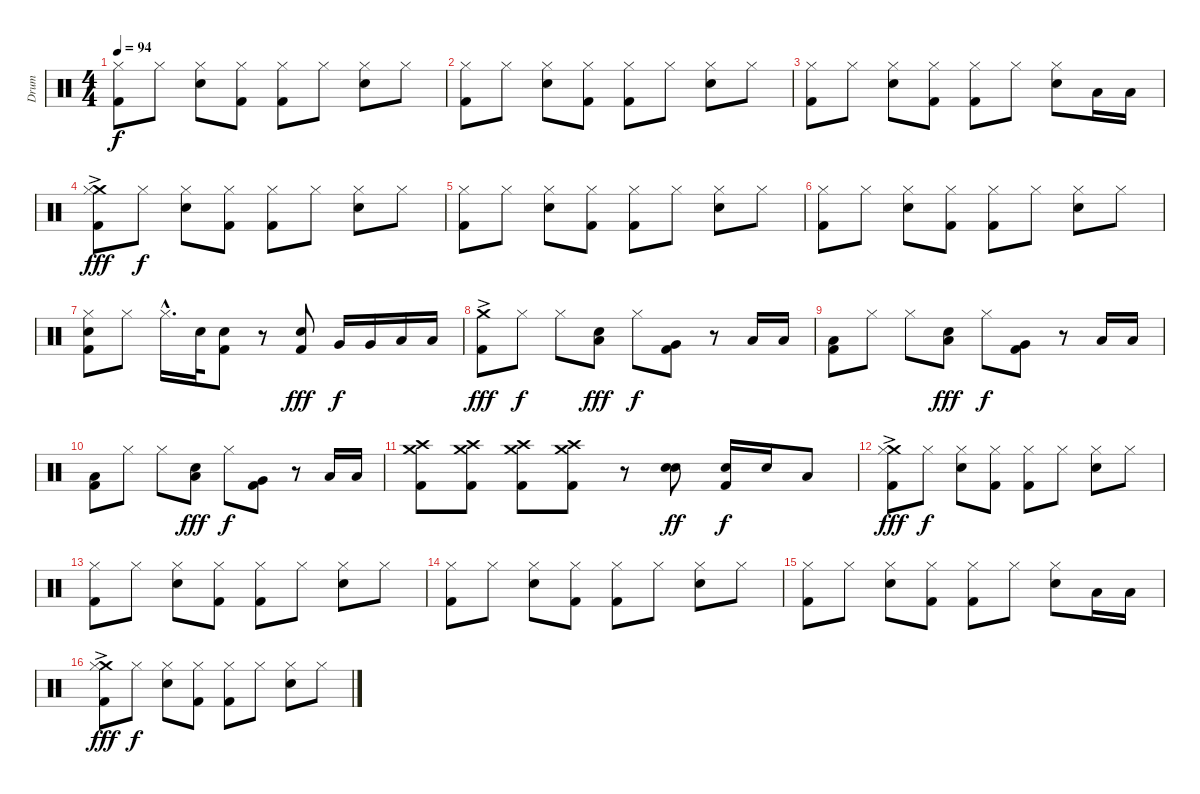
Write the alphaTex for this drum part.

\track ("Drum" "Drum") {instrument percussion}
\staff {score}
\articulation defaults
\ts (4 4)
\tempo 94
\clef neutral
\ks c
("Hi-Hat (closed)" "Kick (hit) 2").8{dy f} "Hi-Hat (closed)".8 ("Hi-Hat (closed)" "Snare (hit) 2").8 ("Hi-Hat (closed)" "Kick (hit) 2").8 ("Hi-Hat (closed)" "Kick (hit) 2").8 "Hi-Hat (closed)".8 ("Hi-Hat (closed)" "Snare (hit) 2").8 "Hi-Hat (closed)".8 |
("Hi-Hat (closed)" "Kick (hit) 2").8 "Hi-Hat (closed)".8 ("Hi-Hat (closed)" "Snare (hit) 2").8 ("Hi-Hat (closed)" "Kick (hit) 2").8 ("Hi-Hat (closed)" "Kick (hit) 2").8 "Hi-Hat (closed)".8 ("Hi-Hat (closed)" "Snare (hit) 2").8 "Hi-Hat (closed)".8 |
("Hi-Hat (closed)" "Kick (hit) 2").8 "Hi-Hat (closed)".8 ("Hi-Hat (closed)" "Snare (hit) 2").8 ("Hi-Hat (closed)" "Kick (hit) 2").8 ("Hi-Hat (closed)" "Kick (hit) 2").8 "Hi-Hat (closed)".8 ("Hi-Hat (closed)" "Snare (hit) 2").8 "Low Floor Tom (hit)".16 "Low Floor Tom (hit)".16 |
("Crash medium (hit)"{ac} "Hi-Hat (closed)" "Kick (hit) 2").8{dy fff} "Hi-Hat (closed)".8{dy f} ("Hi-Hat (closed)" "Snare (hit) 2").8 ("Hi-Hat (closed)" "Kick (hit) 2").8 ("Hi-Hat (closed)" "Kick (hit) 2").8 "Hi-Hat (closed)".8 ("Hi-Hat (closed)" "Snare (hit) 2").8 "Hi-Hat (closed)".8 |
("Hi-Hat (closed)" "Kick (hit) 2").8 "Hi-Hat (closed)".8 ("Hi-Hat (closed)" "Snare (hit) 2").8 ("Hi-Hat (closed)" "Kick (hit) 2").8 ("Hi-Hat (closed)" "Kick (hit) 2").8 "Hi-Hat (closed)".8 ("Hi-Hat (closed)" "Snare (hit) 2").8 "Hi-Hat (closed)".8 |
("Hi-Hat (closed)" "Kick (hit) 2").8 "Hi-Hat (closed)".8 ("Hi-Hat (closed)" "Snare (hit) 2").8 ("Hi-Hat (closed)" "Kick (hit) 2").8 ("Hi-Hat (closed)" "Kick (hit) 2").8 "Hi-Hat (closed)".8 ("Hi-Hat (closed)" "Snare (hit) 2").8 "Hi-Hat (closed)".8 |
("Hi-Hat (closed)" "Snare (hit) 2" "Kick (hit) 2").8 "Hi-Hat (closed)".8 "Hi-Hat (closed)"{hac}.16{d} "Snare (hit) 2".32 ("Snare (hit) 2" "Kick (hit) 2").8 r.8 ("Snare (hit) 2" "Kick (hit) 2").8{dy fff} "Very Low Tom (hit)".16{dy f} "Very Low Tom (hit)".16 "Low Floor Tom (hit)".16 "Low Floor Tom (hit)".16 |
("Crash medium (hit)"{ac} "Kick (hit) 2").8{dy fff} "Hi-Hat (closed)".8{dy f} "Hi-Hat (closed)".8 ("Low Tom (hit)" "Snare (hit) 2").8{dy fff} "Hi-Hat (closed)".8{dy f} ("Very Low Tom (hit)" "Kick (hit) 2").8 r.8 "Low Floor Tom (hit)".16 "Low Floor Tom (hit)".16 |
("Low Floor Tom (hit)" "Kick (hit) 2").8 "Hi-Hat (closed)".8 "Hi-Hat (closed)".8 ("Low Tom (hit)" "Snare (hit) 2").8{dy fff} "Hi-Hat (closed)".8{dy f} ("Very Low Tom (hit)" "Kick (hit) 2").8 r.8 "Low Floor Tom (hit)".16 "Low Floor Tom (hit)".16 |
("Low Floor Tom (hit)" "Kick (hit) 2").8 "Hi-Hat (closed)".8 "Hi-Hat (closed)".8 ("Low Tom (hit)" "Snare (hit) 2").8{dy fff} "Hi-Hat (closed)".8{dy f} ("Very Low Tom (hit)" "Kick (hit) 2").8 r.8 "Low Floor Tom (hit)".16 "Low Floor Tom (hit)".16 |
("Crash medium (hit)" "Crash high (hit)" "Kick (hit) 2").8 ("Crash medium (hit)" "Crash high (hit)" "Kick (hit) 2").8 ("Crash medium (hit)" "Crash high (hit)" "Kick (hit) 2").8 ("Crash medium (hit)" "Crash high (hit)" "Kick (hit) 2").8 r.8 ("Snare (hit) 2" "Snare (hit) 2").8{dy ff} ("Snare (hit) 2" "Kick (hit) 2").16{dy f} "Snare (hit) 2".16 "Low Floor Tom (hit)".8 |
("Crash medium (hit)"{ac} "Hi-Hat (closed)" "Kick (hit) 2").8{dy fff} "Hi-Hat (closed)".8{dy f} ("Hi-Hat (closed)" "Snare (hit) 2").8 ("Hi-Hat (closed)" "Kick (hit) 2").8 ("Hi-Hat (closed)" "Kick (hit) 2").8 "Hi-Hat (closed)".8 ("Hi-Hat (closed)" "Snare (hit) 2").8 "Hi-Hat (closed)".8 |
("Hi-Hat (closed)" "Kick (hit) 2").8 "Hi-Hat (closed)".8 ("Hi-Hat (closed)" "Snare (hit) 2").8 ("Hi-Hat (closed)" "Kick (hit) 2").8 ("Hi-Hat (closed)" "Kick (hit) 2").8 "Hi-Hat (closed)".8 ("Hi-Hat (closed)" "Snare (hit) 2").8 "Hi-Hat (closed)".8 |
("Hi-Hat (closed)" "Kick (hit) 2").8 "Hi-Hat (closed)".8 ("Hi-Hat (closed)" "Snare (hit) 2").8 ("Hi-Hat (closed)" "Kick (hit) 2").8 ("Hi-Hat (closed)" "Kick (hit) 2").8 "Hi-Hat (closed)".8 ("Hi-Hat (closed)" "Snare (hit) 2").8 "Hi-Hat (closed)".8 |
("Hi-Hat (closed)" "Kick (hit) 2").8 "Hi-Hat (closed)".8 ("Hi-Hat (closed)" "Snare (hit) 2").8 ("Hi-Hat (closed)" "Kick (hit) 2").8 ("Hi-Hat (closed)" "Kick (hit) 2").8 "Hi-Hat (closed)".8 ("Hi-Hat (closed)" "Snare (hit) 2").8 "Low Floor Tom (hit)".16 "Low Floor Tom (hit)".16 |
("Crash medium (hit)"{ac} "Hi-Hat (closed)" "Kick (hit) 2").8{dy fff} "Hi-Hat (closed)".8{dy f} ("Hi-Hat (closed)" "Snare (hit) 2").8 ("Hi-Hat (closed)" "Kick (hit) 2").8 ("Hi-Hat (closed)" "Kick (hit) 2").8 "Hi-Hat (closed)".8 ("Hi-Hat (closed)" "Snare (hit) 2").8 "Hi-Hat (closed)".8
